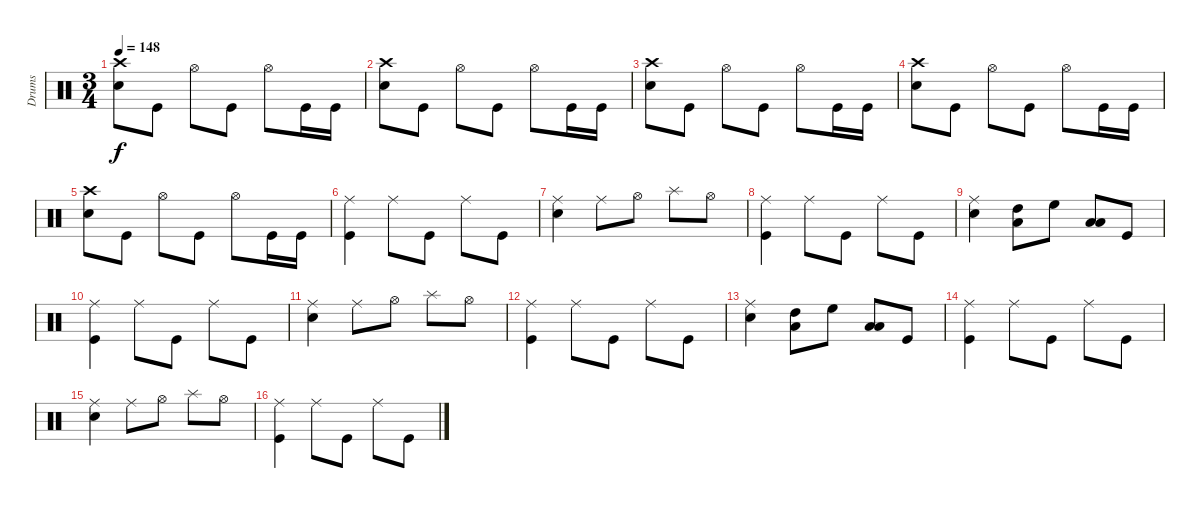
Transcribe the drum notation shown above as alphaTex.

\track ("Drums" "Drums") {instrument percussion}
\staff {score}
\articulation defaults
\ts (3 4)
\tempo 148
\clef neutral
\ks c
("Crash high (hit)" "Snare (hit) 2").8{dy f} "Kick (hit)".8 "Hi-Hat (open)".8 "Kick (hit)".8 "Hi-Hat (open)".8 "Kick (hit)".16 "Kick (hit)".16 |
("Crash high (hit)" "Snare (hit) 2").8 "Kick (hit)".8 "Hi-Hat (open)".8 "Kick (hit)".8 "Hi-Hat (open)".8 "Kick (hit)".16 "Kick (hit)".16 |
("Crash high (hit)" "Snare (hit) 2").8 "Kick (hit)".8 "Hi-Hat (open)".8 "Kick (hit)".8 "Hi-Hat (open)".8 "Kick (hit)".16 "Kick (hit)".16 |
("Crash high (hit)" "Snare (hit) 2").8 "Kick (hit)".8 "Hi-Hat (open)".8 "Kick (hit)".8 "Hi-Hat (open)".8 "Kick (hit)".16 "Kick (hit)".16 |
("Crash high (hit)" "Snare (hit) 2").8 "Kick (hit)".8 "Hi-Hat (open)".8 "Kick (hit)".8 "Hi-Hat (open)".8 "Kick (hit)".16 "Kick (hit)".16 |
("Ride (middle)" "Kick (hit)").4 "Ride (middle)".8 "Kick (hit)".8 "Ride (middle)".8 "Kick (hit)".8 |
("Ride (middle)" "Snare (hit) 2").4 "Ride (middle)".8 "Hi-Hat (open)".8 "Splash (hit)".8 "Hi-Hat (open)".8 |
("Ride (middle)" "Kick (hit)").4 "Ride (middle)".8 "Kick (hit)".8 "Ride (middle)".8 "Kick (hit)".8 |
("Ride (middle)" "Snare (hit) 2").4 ("Low Floor Tom (hit)" "High Tom (hit)").8 "High Floor Tom (hit)".8 ("Low Floor Tom (hit)" "Low Tom (hit)").8 "Kick (hit)".8 |
("Ride (middle)" "Kick (hit)").4 "Ride (middle)".8 "Kick (hit)".8 "Ride (middle)".8 "Kick (hit)".8 |
("Ride (middle)" "Snare (hit) 2").4 "Ride (middle)".8 "Hi-Hat (open)".8 "Splash (hit)".8 "Hi-Hat (open)".8 |
("Ride (middle)" "Kick (hit)").4 "Ride (middle)".8 "Kick (hit)".8 "Ride (middle)".8 "Kick (hit)".8 |
("Ride (middle)" "Snare (hit) 2").4 ("Low Floor Tom (hit)" "High Tom (hit)").8 "High Floor Tom (hit)".8 ("Low Floor Tom (hit)" "Low Tom (hit)").8 "Kick (hit)".8 |
("Ride (middle)" "Kick (hit)").4 "Ride (middle)".8 "Kick (hit)".8 "Ride (middle)".8 "Kick (hit)".8 |
("Ride (middle)" "Snare (hit) 2").4 "Ride (middle)".8 "Hi-Hat (open)".8 "Splash (hit)".8 "Hi-Hat (open)".8 |
("Ride (middle)" "Kick (hit)").4 "Ride (middle)".8 "Kick (hit)".8 "Ride (middle)".8 "Kick (hit)".8
